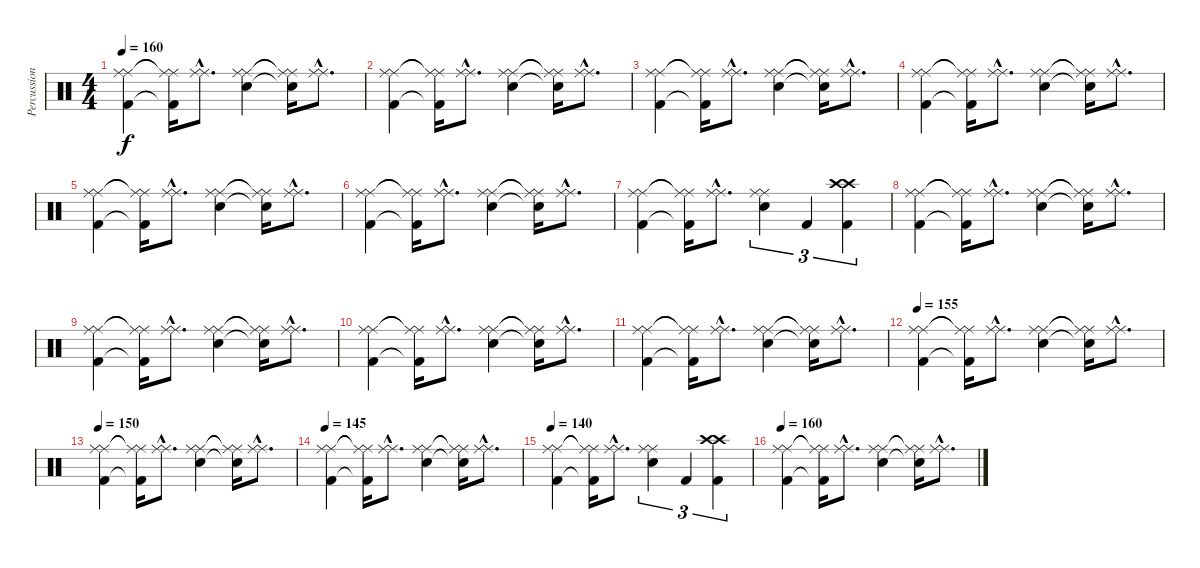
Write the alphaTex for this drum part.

\track ("Percussioni" "Percussion") {instrument percussion}
\staff {score}
\articulation defaults
\ts (4 4)
\tempo 160
\clef neutral
\ks c
("Ride (middle)" "Ride (middle)" "Kick (hit) 2").4{dy f} ("Ride (middle)"{t} "Ride (middle)"{t} "Kick (hit) 2"{t}).16 ("Ride (middle)"{hac} "Ride (middle)"{hac}).8{d} ("Ride (middle)" "Ride (middle)" "Electric Snare (hit)").4 ("Ride (middle)"{t} "Ride (middle)"{t} "Electric Snare (hit)"{t}).16 ("Ride (middle)"{hac} "Ride (middle)"{hac}).8{d} |
("Ride (middle)" "Ride (middle)" "Kick (hit) 2").4 ("Ride (middle)"{t} "Ride (middle)"{t} "Kick (hit) 2"{t}).16 ("Ride (middle)"{hac} "Ride (middle)"{hac}).8{d} ("Ride (middle)" "Ride (middle)" "Electric Snare (hit)").4 ("Ride (middle)"{t} "Ride (middle)"{t} "Electric Snare (hit)"{t}).16 ("Ride (middle)"{hac} "Ride (middle)"{hac}).8{d} |
("Ride (middle)" "Ride (middle)" "Kick (hit) 2").4 ("Ride (middle)"{t} "Ride (middle)"{t} "Kick (hit) 2"{t}).16 ("Ride (middle)"{hac} "Ride (middle)"{hac}).8{d} ("Ride (middle)" "Ride (middle)" "Electric Snare (hit)").4 ("Ride (middle)"{t} "Ride (middle)"{t} "Electric Snare (hit)"{t}).16 ("Ride (middle)"{hac} "Ride (middle)"{hac}).8{d} |
("Ride (middle)" "Ride (middle)" "Kick (hit) 2").4 ("Ride (middle)"{t} "Ride (middle)"{t} "Kick (hit) 2"{t}).16 ("Ride (middle)"{hac} "Ride (middle)"{hac}).8{d} ("Ride (middle)" "Ride (middle)" "Electric Snare (hit)").4 ("Ride (middle)"{t} "Ride (middle)"{t} "Electric Snare (hit)"{t}).16 ("Ride (middle)"{hac} "Ride (middle)"{hac}).8{d} |
("Ride (middle)" "Ride (middle)" "Kick (hit) 2").4 ("Ride (middle)"{t} "Ride (middle)"{t} "Kick (hit) 2"{t}).16 ("Ride (middle)"{hac} "Ride (middle)"{hac}).8{d} ("Ride (middle)" "Ride (middle)" "Electric Snare (hit)").4 ("Ride (middle)"{t} "Ride (middle)"{t} "Electric Snare (hit)"{t}).16 ("Ride (middle)"{hac} "Ride (middle)"{hac}).8{d} |
("Ride (middle)" "Ride (middle)" "Kick (hit) 2").4 ("Ride (middle)"{t} "Ride (middle)"{t} "Kick (hit) 2"{t}).16 ("Ride (middle)"{hac} "Ride (middle)"{hac}).8{d} ("Ride (middle)" "Ride (middle)" "Electric Snare (hit)").4 ("Ride (middle)"{t} "Ride (middle)"{t} "Electric Snare (hit)"{t}).16 ("Ride (middle)"{hac} "Ride (middle)"{hac}).8{d} |
("Ride (middle)" "Ride (middle)" "Kick (hit) 2").4 ("Ride (middle)"{t} "Ride (middle)"{t} "Kick (hit) 2"{t}).16 ("Ride (middle)"{hac} "Ride (middle)"{hac}).8{d} ("Ride (middle)" "Ride (middle)" "Electric Snare (hit)").4{tu (3 2)} "Kick (hit) 2".4{tu (3 2)} ("Crash high (hit)" "Crash high (hit)" "Kick (hit) 2").4{tu (3 2)} |
("Ride (middle)" "Ride (middle)" "Kick (hit) 2").4 ("Ride (middle)"{t} "Ride (middle)"{t} "Kick (hit) 2"{t}).16 ("Ride (middle)"{hac} "Ride (middle)"{hac}).8{d} ("Ride (middle)" "Ride (middle)" "Electric Snare (hit)").4 ("Ride (middle)"{t} "Ride (middle)"{t} "Electric Snare (hit)"{t}).16 ("Ride (middle)"{hac} "Ride (middle)"{hac}).8{d} |
("Ride (middle)" "Ride (middle)" "Kick (hit) 2").4 ("Ride (middle)"{t} "Ride (middle)"{t} "Kick (hit) 2"{t}).16 ("Ride (middle)"{hac} "Ride (middle)"{hac}).8{d} ("Ride (middle)" "Ride (middle)" "Electric Snare (hit)").4 ("Ride (middle)"{t} "Ride (middle)"{t} "Electric Snare (hit)"{t}).16 ("Ride (middle)"{hac} "Ride (middle)"{hac}).8{d} |
("Ride (middle)" "Ride (middle)" "Kick (hit) 2").4 ("Ride (middle)"{t} "Ride (middle)"{t} "Kick (hit) 2"{t}).16 ("Ride (middle)"{hac} "Ride (middle)"{hac}).8{d} ("Ride (middle)" "Ride (middle)" "Electric Snare (hit)").4 ("Ride (middle)"{t} "Ride (middle)"{t} "Electric Snare (hit)"{t}).16 ("Ride (middle)"{hac} "Ride (middle)"{hac}).8{d} |
("Ride (middle)" "Ride (middle)" "Kick (hit) 2").4 ("Ride (middle)"{t} "Ride (middle)"{t} "Kick (hit) 2"{t}).16 ("Ride (middle)"{hac} "Ride (middle)"{hac}).8{d} ("Ride (middle)" "Ride (middle)" "Electric Snare (hit)").4 ("Ride (middle)"{t} "Ride (middle)"{t} "Electric Snare (hit)"{t}).16 ("Ride (middle)"{hac} "Ride (middle)"{hac}).8{d} |
\tempo 155
("Ride (middle)" "Ride (middle)" "Kick (hit) 2").4 ("Ride (middle)"{t} "Ride (middle)"{t} "Kick (hit) 2"{t}).16 ("Ride (middle)"{hac} "Ride (middle)"{hac}).8{d} ("Ride (middle)" "Ride (middle)" "Electric Snare (hit)").4 ("Ride (middle)"{t} "Ride (middle)"{t} "Electric Snare (hit)"{t}).16 ("Ride (middle)"{hac} "Ride (middle)"{hac}).8{d} |
\tempo 150
("Ride (middle)" "Ride (middle)" "Kick (hit) 2").4 ("Ride (middle)"{t} "Ride (middle)"{t} "Kick (hit) 2"{t}).16 ("Ride (middle)"{hac} "Ride (middle)"{hac}).8{d} ("Ride (middle)" "Ride (middle)" "Electric Snare (hit)").4 ("Ride (middle)"{t} "Ride (middle)"{t} "Electric Snare (hit)"{t}).16 ("Ride (middle)"{hac} "Ride (middle)"{hac}).8{d} |
\tempo 145
("Ride (middle)" "Ride (middle)" "Kick (hit) 2").4 ("Ride (middle)"{t} "Ride (middle)"{t} "Kick (hit) 2"{t}).16 ("Ride (middle)"{hac} "Ride (middle)"{hac}).8{d} ("Ride (middle)" "Ride (middle)" "Electric Snare (hit)").4 ("Ride (middle)"{t} "Ride (middle)"{t} "Electric Snare (hit)"{t}).16 ("Ride (middle)"{hac} "Ride (middle)"{hac}).8{d} |
\tempo 140
("Ride (middle)" "Ride (middle)" "Kick (hit) 2").4 ("Ride (middle)"{t} "Ride (middle)"{t} "Kick (hit) 2"{t}).16 ("Ride (middle)"{hac} "Ride (middle)"{hac}).8{d} ("Ride (middle)" "Ride (middle)" "Electric Snare (hit)").4{tu (3 2)} "Kick (hit) 2".4{tu (3 2)} ("Crash high (hit)" "Crash high (hit)" "Kick (hit) 2").4{tu (3 2)} |
\tempo 160
("Ride (middle)" "Ride (middle)" "Kick (hit) 2").4 ("Ride (middle)"{t} "Ride (middle)"{t} "Kick (hit) 2"{t}).16 ("Ride (middle)"{hac} "Ride (middle)"{hac}).8{d} ("Ride (middle)" "Ride (middle)" "Electric Snare (hit)").4 ("Ride (middle)"{t} "Ride (middle)"{t} "Electric Snare (hit)"{t}).16 ("Ride (middle)"{hac} "Ride (middle)"{hac}).8{d}
